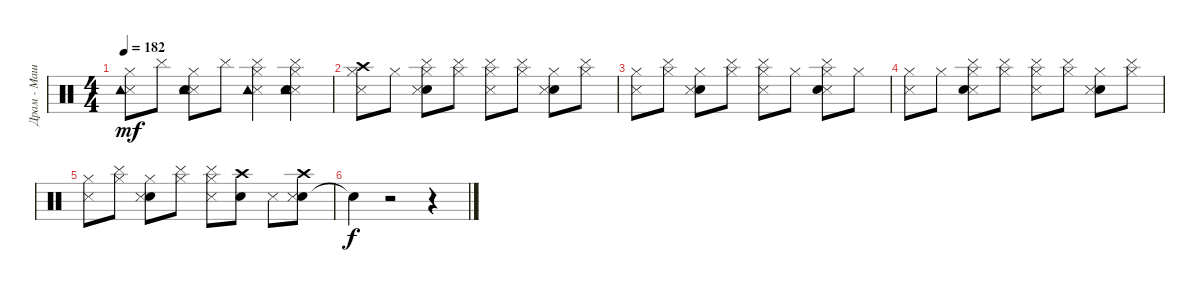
\track ("Драм - Машина" "Драм - Маш") {instrument percussion}
\staff {score}
\articulation defaults
\ts (4 4)
\tempo 182
\clef neutral
\ks c
("Metronome (hit)" "Tambourine (hit)" "Hi-Hat (closed)").8{dy mf} "Cymbal (hit)".8 ("Metronome (hit)" "Metronome (bell)" "Hi-Hat (closed)" "Tambourine (hit)").8 "Cymbal (hit)".8 ("Metronome (hit)" "Cymbal (hit)" "Tambourine (hit)" "Hi-Hat (closed)").4 ("Metronome (hit)" "Metronome (bell)" "Cymbal (hit)" "Hi-Hat (closed)" "Tambourine (hit)").4 |
("Metronome (hit)" "Hi-Hat (closed)" "Crash high (hit)").8 "Hi-Hat (closed)".8 ("Metronome (bell)" "Metronome (hit)" "Hi-Hat (closed)" "Cymbal (hit)").8 ("Hi-Hat (closed)" "Cymbal (hit)").8 ("Metronome (hit)" "Hi-Hat (closed)" "Cymbal (hit)").8 ("Hi-Hat (closed)" "Cymbal (hit)").8 ("Metronome (bell)" "Metronome (hit)" "Hi-Hat (closed)").8 ("Hi-Hat (closed)" "Cymbal (hit)").8 |
("Metronome (hit)" "Hi-Hat (closed)").8 ("Hi-Hat (closed)" "Cymbal (hit)").8 ("Metronome (bell)" "Metronome (hit)" "Hi-Hat (closed)").8 ("Hi-Hat (closed)" "Cymbal (hit)").8 ("Metronome (hit)" "Hi-Hat (closed)" "Cymbal (hit)").8 "Hi-Hat (closed)".8 ("Metronome (hit)" "Metronome (bell)" "Hi-Hat (closed)" "Cymbal (hit)").8 "Hi-Hat (closed)".8 |
("Metronome (hit)" "Hi-Hat (closed)").8 "Hi-Hat (closed)".8 ("Metronome (hit)" "Metronome (bell)" "Hi-Hat (closed)" "Cymbal (hit)").8 ("Hi-Hat (closed)" "Cymbal (hit)").8 ("Metronome (hit)" "Hi-Hat (closed)" "Cymbal (hit)").8 ("Hi-Hat (closed)" "Cymbal (hit)").8 ("Metronome (bell)" "Metronome (hit)" "Hi-Hat (closed)").8 ("Hi-Hat (closed)" "Cymbal (hit)").8 |
("Metronome (hit)" "Hi-Hat (closed)").8 ("Hi-Hat (closed)" "Cymbal (hit)").8 ("Metronome (bell)" "Hi-Hat (closed)" "Metronome (hit)").8 ("Hi-Hat (closed)" "Cymbal (hit)").8 ("Metronome (hit)" "Hi-Hat (closed)" "Cymbal (hit)").8 ("Metronome (bell)" "Crash high (hit)").8 "Metronome (hit)".8 ("Metronome (bell)" "Crash high (hit)" "Metronome (hit)").8 |
"Snare (hit)"{t}.4{dy f} r.2 r.4
